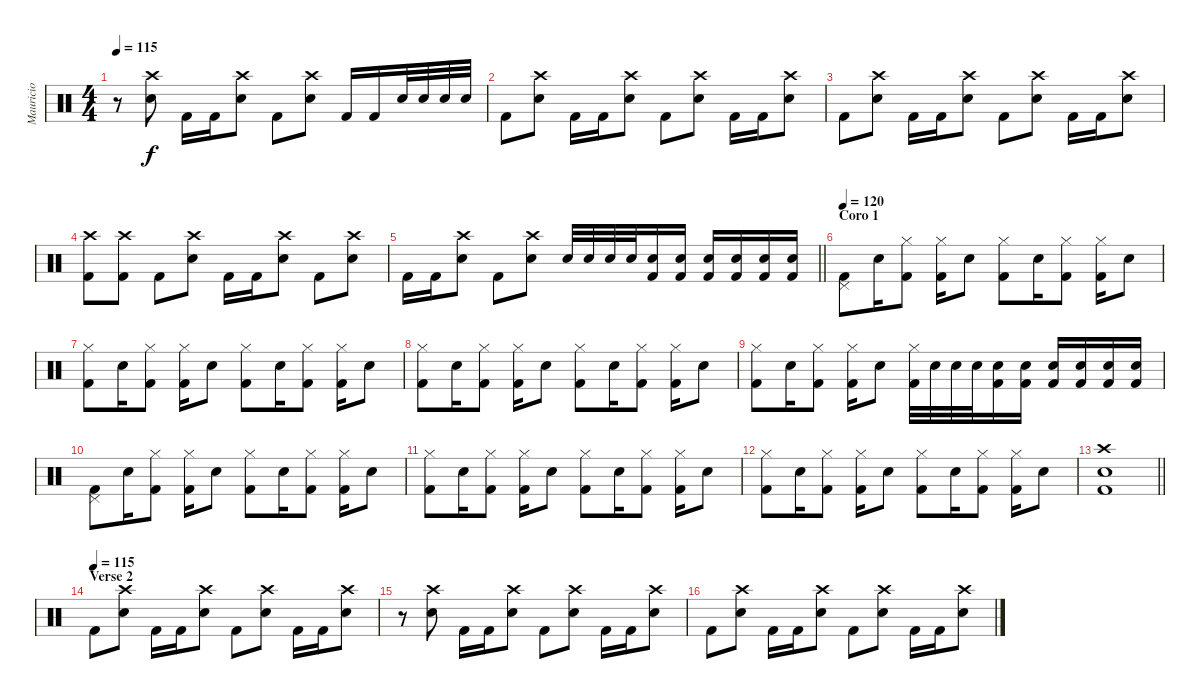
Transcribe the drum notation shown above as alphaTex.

\track ("Mauricio" "Mauricio") {instrument percussion}
\staff {score}
\articulation defaults
\ts (4 4)
\tempo 115
\clef neutral
\ks c
r.8{dy f} ("Crash high (hit)" "Electric Snare (hit)").8 "Kick (hit) 2".16 "Kick (hit) 2".16 ("Crash high (hit)" "Electric Snare (hit)").8 "Kick (hit) 2".8 ("Crash high (hit)" "Electric Snare (hit)").8 "Kick (hit) 2".16 "Kick (hit) 2".16 "Electric Snare (hit)".32 "Electric Snare (hit)".32 "Electric Snare (hit)".32 "Electric Snare (hit)".32 |
"Kick (hit) 2".8 ("Crash high (hit)" "Electric Snare (hit)").8 "Kick (hit) 2".16 "Kick (hit) 2".16 ("Crash high (hit)" "Electric Snare (hit)").8 "Kick (hit) 2".8 ("Crash high (hit)" "Electric Snare (hit)").8 "Kick (hit) 2".16 "Kick (hit) 2".16 ("Crash high (hit)" "Electric Snare (hit)").8 |
"Kick (hit) 2".8 ("Crash high (hit)" "Electric Snare (hit)").8 "Kick (hit) 2".16 "Kick (hit) 2".16 ("Crash high (hit)" "Electric Snare (hit)").8 "Kick (hit) 2".8 ("Crash high (hit)" "Electric Snare (hit)").8 "Kick (hit) 2".16 "Kick (hit) 2".16 ("Crash high (hit)" "Electric Snare (hit)").8 |
("Crash high (hit)" "Kick (hit) 2").8 ("Crash high (hit)" "Kick (hit) 2").8 "Kick (hit) 2".8 ("Crash high (hit)" "Electric Snare (hit)").8 "Kick (hit) 2".16 "Kick (hit) 2".16 ("Crash high (hit)" "Electric Snare (hit)").8 "Kick (hit) 2".8 ("Crash high (hit)" "Electric Snare (hit)").8 |
\barLineRight lightlight "Kick (hit) 2".16 "Kick (hit) 2".16
("Crash high (hit)" "Electric Snare (hit)").8 "Kick (hit) 2".8 ("Crash high (hit)" "Electric Snare (hit)").8 "Electric Snare (hit)".32 "Electric Snare (hit)".32 "Electric Snare (hit)".32 "Electric Snare (hit)".32 ("Kick (hit) 2" "Electric Snare (hit)").16 ("Kick (hit) 2" "Electric Snare (hit)").16 ("Kick (hit) 2" "Electric Snare (hit)").16 ("Kick (hit) 2" "Electric Snare (hit)").16 ("Kick (hit) 2" "Electric Snare (hit)").16 ("Kick (hit) 2" "Electric Snare (hit)").16 |
\section ("" "Coro 1")
\tempo 120
("Pedal Hi-Hat (hit)" "Kick (hit) 2").8 "Electric Snare (hit)".16 ("Hi-Hat (closed)" "Kick (hit) 2").8 ("Hi-Hat (closed)" "Kick (hit) 2").16 "Electric Snare (hit)".8 ("Hi-Hat (closed)" "Kick (hit) 2").8 "Electric Snare (hit)".16 ("Hi-Hat (closed)" "Kick (hit) 2").8 ("Hi-Hat (closed)" "Kick (hit) 2").16 "Electric Snare (hit)".8 |
("Hi-Hat (closed)" "Kick (hit) 2").8 "Electric Snare (hit)".16 ("Hi-Hat (closed)" "Kick (hit) 2").8 ("Hi-Hat (closed)" "Kick (hit) 2").16 "Electric Snare (hit)".8 ("Hi-Hat (closed)" "Kick (hit) 2").8 "Electric Snare (hit)".16 ("Hi-Hat (closed)" "Kick (hit) 2").8 ("Hi-Hat (closed)" "Kick (hit) 2").16 "Electric Snare (hit)".8 |
("Hi-Hat (closed)" "Kick (hit) 2").8 "Electric Snare (hit)".16 ("Hi-Hat (closed)" "Kick (hit) 2").8 ("Hi-Hat (closed)" "Kick (hit) 2").16 "Electric Snare (hit)".8 ("Hi-Hat (closed)" "Kick (hit) 2").8 "Electric Snare (hit)".16 ("Hi-Hat (closed)" "Kick (hit) 2").8 ("Hi-Hat (closed)" "Kick (hit) 2").16 "Electric Snare (hit)".8 |
("Hi-Hat (closed)" "Kick (hit) 2").8 "Electric Snare (hit)".16 ("Hi-Hat (closed)" "Kick (hit) 2").8 ("Hi-Hat (closed)" "Kick (hit) 2").16 "Electric Snare (hit)".8 ("Hi-Hat (closed)" "Kick (hit) 2").32 "Electric Snare (hit)".32 "Electric Snare (hit)".32 "Electric Snare (hit)".32 ("Kick (hit) 2" "Electric Snare (hit)").16 ("Kick (hit) 2" "Electric Snare (hit)").16 ("Kick (hit) 2" "Electric Snare (hit)").16 ("Kick (hit) 2" "Electric Snare (hit)").16 ("Kick (hit) 2" "Electric Snare (hit)").16 ("Kick (hit) 2" "Electric Snare (hit)").16 |
("Pedal Hi-Hat (hit)" "Kick (hit) 2").8 "Electric Snare (hit)".16 ("Hi-Hat (closed)" "Kick (hit) 2").8 ("Hi-Hat (closed)" "Kick (hit) 2").16 "Electric Snare (hit)".8 ("Hi-Hat (closed)" "Kick (hit) 2").8 "Electric Snare (hit)".16 ("Hi-Hat (closed)" "Kick (hit) 2").8 ("Hi-Hat (closed)" "Kick (hit) 2").16 "Electric Snare (hit)".8 |
("Hi-Hat (closed)" "Kick (hit) 2").8 "Electric Snare (hit)".16 ("Hi-Hat (closed)" "Kick (hit) 2").8 ("Hi-Hat (closed)" "Kick (hit) 2").16 "Electric Snare (hit)".8 ("Hi-Hat (closed)" "Kick (hit) 2").8 "Electric Snare (hit)".16 ("Hi-Hat (closed)" "Kick (hit) 2").8 ("Hi-Hat (closed)" "Kick (hit) 2").16 "Electric Snare (hit)".8 |
("Hi-Hat (closed)" "Kick (hit) 2").8 "Electric Snare (hit)".16 ("Hi-Hat (closed)" "Kick (hit) 2").8 ("Hi-Hat (closed)" "Kick (hit) 2").16 "Electric Snare (hit)".8 ("Hi-Hat (closed)" "Kick (hit) 2").8 "Electric Snare (hit)".16 ("Hi-Hat (closed)" "Kick (hit) 2").8 ("Hi-Hat (closed)" "Kick (hit) 2").16 "Electric Snare (hit)".8 |
\barLineRight lightlight
("Crash high (hit)" "Kick (hit) 2" "Electric Snare (hit)").1 |
\section ("" "Verse 2")
\tempo (115)
"Kick (hit) 2".8 ("Crash high (hit)" "Electric Snare (hit)").8 "Kick (hit) 2".16 "Kick (hit) 2".16 ("Crash high (hit)" "Electric Snare (hit)").8 "Kick (hit) 2".8 ("Crash high (hit)" "Electric Snare (hit)").8 "Kick (hit) 2".16 "Kick (hit) 2".16 ("Crash high (hit)" "Electric Snare (hit)").8 |
r.8 ("Crash high (hit)" "Electric Snare (hit)").8 "Kick (hit) 2".16 "Kick (hit) 2".16 ("Crash high (hit)" "Electric Snare (hit)").8 "Kick (hit) 2".8 ("Crash high (hit)" "Electric Snare (hit)").8 "Kick (hit) 2".16 "Kick (hit) 2".16 ("Crash high (hit)" "Electric Snare (hit)").8 |
"Kick (hit) 2".8 ("Crash high (hit)" "Electric Snare (hit)").8 "Kick (hit) 2".16 "Kick (hit) 2".16 ("Crash high (hit)" "Electric Snare (hit)").8 "Kick (hit) 2".8 ("Crash high (hit)" "Electric Snare (hit)").8 "Kick (hit) 2".16 "Kick (hit) 2".16 ("Crash high (hit)" "Electric Snare (hit)").8
